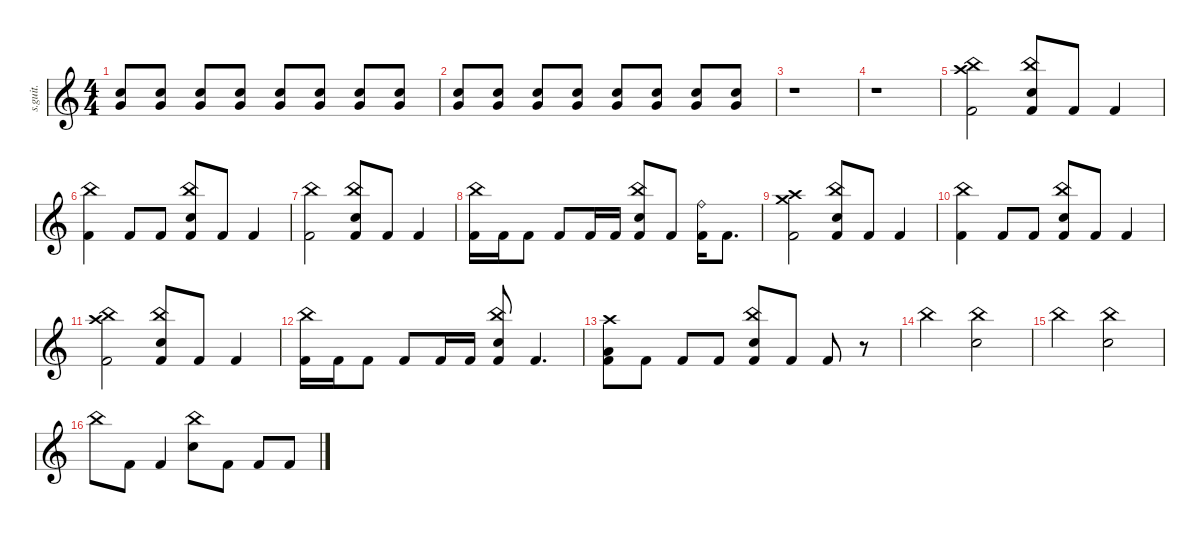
\defaultSystemsLayout 4
\hideDynamics
\bracketExtendMode nobrackets
\track ("Track 4" "s.guit.") {instrument percussion}
\staff {score}
\articulation defaults
\ts (4 4)
\tempo (163 hide)
\clef g2
\ks c
("Very Low Tom (hit)" "Snare (hit) 2").8{dy f} ("Very Low Tom (hit)" "Snare (hit) 2").8 ("Very Low Tom (hit)" "Snare (hit) 2").8 ("Very Low Tom (hit)" "Snare (hit) 2").8 ("Very Low Tom (hit)" "Snare (hit) 2").8 ("Very Low Tom (hit)" "Snare (hit) 2").8 ("Very Low Tom (hit)" "Snare (hit) 2").8 ("Very Low Tom (hit)" "Snare (hit) 2").8 |
("Very Low Tom (hit)" "Snare (hit) 2").8 ("Very Low Tom (hit)" "Snare (hit) 2").8 ("Very Low Tom (hit)" "Snare (hit) 2").8 ("Very Low Tom (hit)" "Snare (hit) 2").8 ("Very Low Tom (hit)" "Snare (hit) 2").8 ("Very Low Tom (hit)" "Snare (hit) 2").8 ("Very Low Tom (hit)" "Snare (hit) 2").8 ("Very Low Tom (hit)" "Snare (hit) 2").8 |
r.1 |
r.1 |
("Crash high (hit)" "China (hit)" "Kick (hit) 2").2 ("China (hit)" "Snare (hit) 2" "Kick (hit) 2").8 "Kick (hit) 2".8 "Kick (hit) 2".4 |
("China (hit)" "Kick (hit) 2").4 "Kick (hit) 2".8 "Kick (hit) 2".8 ("China (hit)" "Snare (hit) 2" "Kick (hit) 2").8 "Kick (hit) 2".8 "Kick (hit) 2".4 |
("China (hit)" "Kick (hit) 2").2 ("China (hit)" "Snare (hit) 2" "Kick (hit) 2").8 "Kick (hit) 2".8 "Kick (hit) 2".4 |
("China (hit)" "Kick (hit) 2").16 "Kick (hit) 2".16 "Kick (hit) 2".8 "Kick (hit) 2".8 "Kick (hit) 2".16 "Kick (hit) 2".16 ("China (hit)" "Snare (hit) 2" "Kick (hit) 2").8 "Kick (hit) 2".8 ("Ride (bell)" "Kick (hit) 2").16 "Kick (hit) 2".8{d} |
("Crash high (hit)" "Crash medium (hit)" "Kick (hit) 2").2 ("China (hit)" "Snare (hit) 2" "Kick (hit) 2").8 "Kick (hit) 2".8 "Kick (hit) 2".4 |
("China (hit)" "Kick (hit) 2").4 "Kick (hit) 2".8 "Kick (hit) 2".8 ("China (hit)" "Snare (hit) 2" "Kick (hit) 2").8 "Kick (hit) 2".8 "Kick (hit) 2".4 |
("Crash high (hit)" "China (hit)" "Kick (hit) 2").2 ("China (hit)" "Snare (hit) 2" "Kick (hit) 2").8 "Kick (hit) 2".8 "Kick (hit) 2".4 |
("China (hit)" "Kick (hit) 2").16 "Kick (hit) 2".16 "Kick (hit) 2".8 "Kick (hit) 2".8 "Kick (hit) 2".16 "Kick (hit) 2".16 ("China (hit)" "Snare (hit) 2" "Kick (hit) 2").8 "Kick (hit) 2".4{d} |
("Crash high (hit)" "Low Tom (hit)" "Kick (hit) 2").8 "Kick (hit) 2".8 "Kick (hit) 2".8 "Kick (hit) 2".8 ("China (hit)" "Snare (hit) 2" "Kick (hit) 2").8 "Kick (hit) 2".8 "Kick (hit) 2".8 r.8 |
"China (hit)".2 ("China (hit)" "Snare (hit) 2").2 |
"China (hit)".2 ("China (hit)" "Snare (hit) 2").2 |
"China (hit)".8 "Kick (hit) 2".8 "Kick (hit) 2".4 ("China (hit)" "Snare (hit) 2").8 "Kick (hit) 2".8 "Kick (hit) 2".8 "Kick (hit) 2".8
